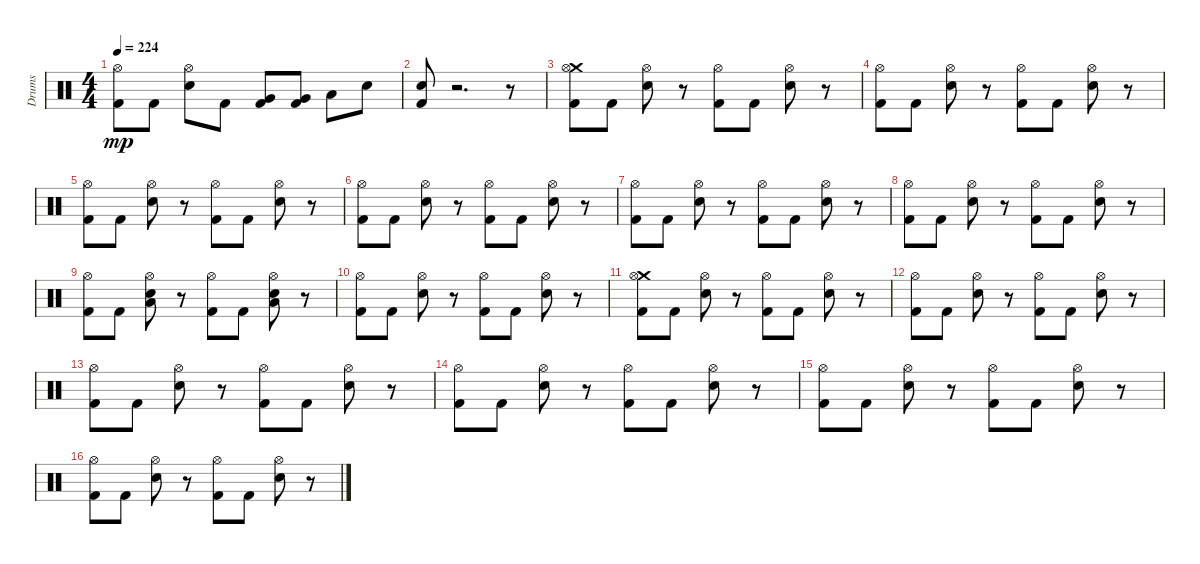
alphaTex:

\track ("Drums" "Drums") {instrument percussion}
\staff {score}
\articulation defaults
\ts (4 4)
\tempo 224
\clef neutral
\ks c
("Kick (hit) 2" "Hi-Hat (open)").8{dy mp} "Kick (hit) 2".8 ("Hi-Hat (open)" "Electric Snare (hit)").8 "Kick (hit) 2".8 ("Kick (hit) 2" "Very Low Tom (hit)").8 ("Very Low Tom (hit)" "Kick (hit) 2").8 "Low Floor Tom (hit)".8 "Electric Snare (hit)".8 |
("Electric Snare (hit)" "Kick (hit) 2").8 r.2{d} r.8 |
("Crash medium (hit)" "Hi-Hat (open)" "Kick (hit) 2").8 "Kick (hit) 2".8 ("Hi-Hat (open)" "Electric Snare (hit)").8 r.8 ("Hi-Hat (open)" "Kick (hit) 2").8 "Kick (hit) 2".8 ("Hi-Hat (open)" "Electric Snare (hit)").8 r.8 |
("Hi-Hat (open)" "Kick (hit) 2").8 "Kick (hit) 2".8 ("Electric Snare (hit)" "Hi-Hat (open)").8 r.8 ("Hi-Hat (open)" "Kick (hit) 2").8 "Kick (hit) 2".8 ("Hi-Hat (open)" "Electric Snare (hit)").8 r.8 |
("Kick (hit) 2" "Hi-Hat (open)").8 "Kick (hit) 2".8 ("Hi-Hat (open)" "Electric Snare (hit)").8 r.8 ("Kick (hit) 2" "Hi-Hat (open)").8 "Kick (hit) 2".8 ("Electric Snare (hit)" "Hi-Hat (open)").8 r.8 |
("Hi-Hat (open)" "Kick (hit) 2").8 "Kick (hit) 2".8 ("Hi-Hat (open)" "Electric Snare (hit)").8 r.8 ("Kick (hit) 2" "Hi-Hat (open)").8 "Kick (hit) 2".8 ("Hi-Hat (open)" "Electric Snare (hit)").8 r.8 |
("Kick (hit) 2" "Hi-Hat (open)").8 "Kick (hit) 2".8 ("Electric Snare (hit)" "Hi-Hat (open)").8 r.8 ("Hi-Hat (open)" "Kick (hit) 2").8 "Kick (hit) 2".8 ("Hi-Hat (open)" "Electric Snare (hit)").8 r.8 |
("Hi-Hat (open)" "Kick (hit) 2").8 "Kick (hit) 2".8 ("Hi-Hat (open)" "Electric Snare (hit)").8 r.8 ("Kick (hit) 2" "Hi-Hat (open)").8 "Kick (hit) 2".8 ("Electric Snare (hit)" "Hi-Hat (open)").8 r.8 |
("Kick (hit) 2" "Hi-Hat (open)").8 "Kick (hit) 2".8 ("Hi-Hat (open)" "Low Floor Tom (hit)" "Electric Snare (hit)").8 r.8 ("Hi-Hat (open)" "Kick (hit) 2").8 "Kick (hit) 2".8 ("Electric Snare (hit)" "Hi-Hat (open)" "Low Floor Tom (hit)").8 r.8 |
("Kick (hit) 2" "Hi-Hat (open)").8 "Kick (hit) 2".8 ("Electric Snare (hit)" "Hi-Hat (open)").8 r.8 ("Hi-Hat (open)" "Kick (hit) 2").8 "Kick (hit) 2".8 ("Electric Snare (hit)" "Hi-Hat (open)").8 r.8 |
("Kick (hit) 2" "Crash medium (hit)" "Hi-Hat (open)").8 "Kick (hit) 2".8 ("Hi-Hat (open)" "Electric Snare (hit)").8 r.8 ("Kick (hit) 2" "Hi-Hat (open)").8 "Kick (hit) 2".8 ("Electric Snare (hit)" "Hi-Hat (open)").8 r.8 |
("Kick (hit) 2" "Hi-Hat (open)").8 "Kick (hit) 2".8 ("Hi-Hat (open)" "Electric Snare (hit)").8 r.8 ("Kick (hit) 2" "Hi-Hat (open)").8 "Kick (hit) 2".8 ("Electric Snare (hit)" "Hi-Hat (open)").8 r.8 |
("Kick (hit) 2" "Hi-Hat (open)").8 "Kick (hit) 2".8 ("Hi-Hat (open)" "Electric Snare (hit)").8 r.8 ("Hi-Hat (open)" "Kick (hit) 2").8 "Kick (hit) 2".8 ("Hi-Hat (open)" "Electric Snare (hit)").8 r.8 |
("Hi-Hat (open)" "Kick (hit) 2").8 "Kick (hit) 2".8 ("Electric Snare (hit)" "Hi-Hat (open)").8 r.8 ("Kick (hit) 2" "Hi-Hat (open)").8 "Kick (hit) 2".8 ("Hi-Hat (open)" "Electric Snare (hit)").8 r.8 |
("Kick (hit) 2" "Hi-Hat (open)").8 "Kick (hit) 2".8 ("Hi-Hat (open)" "Electric Snare (hit)").8 r.8 ("Hi-Hat (open)" "Kick (hit) 2").8 "Kick (hit) 2".8 ("Hi-Hat (open)" "Electric Snare (hit)").8 r.8 |
("Hi-Hat (open)" "Kick (hit) 2").8 "Kick (hit) 2".8 ("Hi-Hat (open)" "Electric Snare (hit)").8 r.8 ("Hi-Hat (open)" "Kick (hit) 2").8 "Kick (hit) 2".8 ("Electric Snare (hit)" "Hi-Hat (open)").8 r.8
